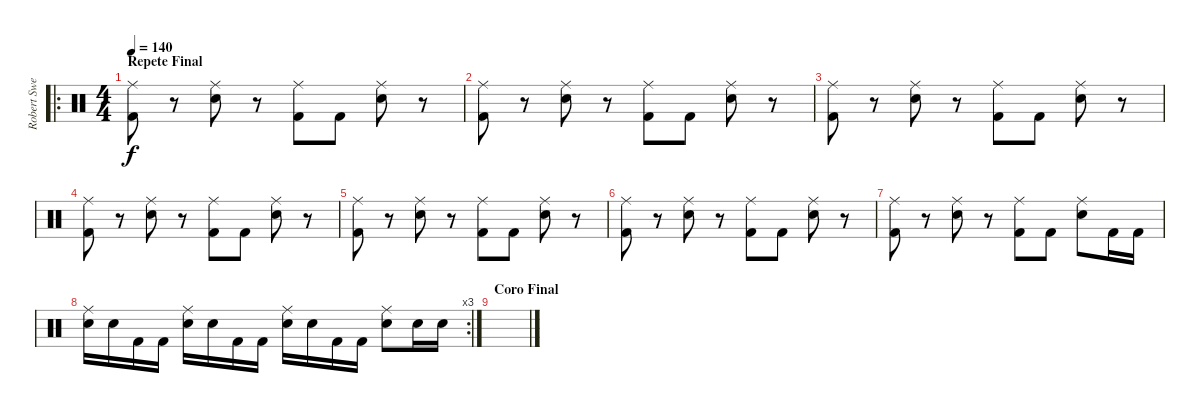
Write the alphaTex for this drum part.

\track ("Robert Sweet" "Robert Swe") {instrument percussion}
\staff {score}
\articulation defaults
\ro
\ts (4 4)
\section ("" "Repete Final")
\tempo 140
\clef neutral
\ks c
("Ride (middle)" "Kick (hit) 2").8{dy f} r.8 ("Ride (middle)" "Electric Snare (hit)").8 r.8 ("Ride (middle)" "Kick (hit) 2").8 "Kick (hit) 2".8 ("Ride (middle)" "Electric Snare (hit)").8 r.8 |
("Ride (middle)" "Kick (hit) 2").8 r.8 ("Ride (middle)" "Electric Snare (hit)").8 r.8 ("Ride (middle)" "Kick (hit) 2").8 "Kick (hit) 2".8 ("Ride (middle)" "Electric Snare (hit)").8 r.8 |
("Ride (middle)" "Kick (hit) 2").8 r.8 ("Ride (middle)" "Electric Snare (hit)").8 r.8 ("Ride (middle)" "Kick (hit) 2").8 "Kick (hit) 2".8 ("Ride (middle)" "Electric Snare (hit)").8 r.8 |
("Ride (middle)" "Kick (hit) 2").8 r.8 ("Ride (middle)" "Electric Snare (hit)").8 r.8 ("Ride (middle)" "Kick (hit) 2").8 "Kick (hit) 2".8 ("Ride (middle)" "Electric Snare (hit)").8 r.8 |
("Ride (middle)" "Kick (hit) 2").8 r.8 ("Ride (middle)" "Electric Snare (hit)").8 r.8 ("Ride (middle)" "Kick (hit) 2").8 "Kick (hit) 2".8 ("Ride (middle)" "Electric Snare (hit)").8 r.8 |
("Ride (middle)" "Kick (hit) 2").8 r.8 ("Ride (middle)" "Electric Snare (hit)").8 r.8 ("Ride (middle)" "Kick (hit) 2").8 "Kick (hit) 2".8 ("Ride (middle)" "Electric Snare (hit)").8 r.8 |
("Ride (middle)" "Kick (hit) 2").8 r.8 ("Ride (middle)" "Electric Snare (hit)").8 r.8 ("Ride (middle)" "Kick (hit) 2").8 "Kick (hit) 2".8 ("Ride (middle)" "Electric Snare (hit)").8 "Kick (hit) 2".16 "Kick (hit) 2".16 |
\rc 3
("Ride (middle)" "Electric Snare (hit)").16 "Electric Snare (hit)".16 "Kick (hit) 2".16 "Kick (hit) 2".16 ("Ride (middle)" "Electric Snare (hit)").16 "Electric Snare (hit)".16 "Kick (hit) 2".16 "Kick (hit) 2".16 ("Ride (middle)" "Electric Snare (hit)").16 "Electric Snare (hit)".16 "Kick (hit) 2".16 "Kick (hit) 2".16 ("Ride (middle)" "Electric Snare (hit)").8 "Electric Snare (hit)".16 "Electric Snare (hit)".16 |
\section ("" "Coro Final")
